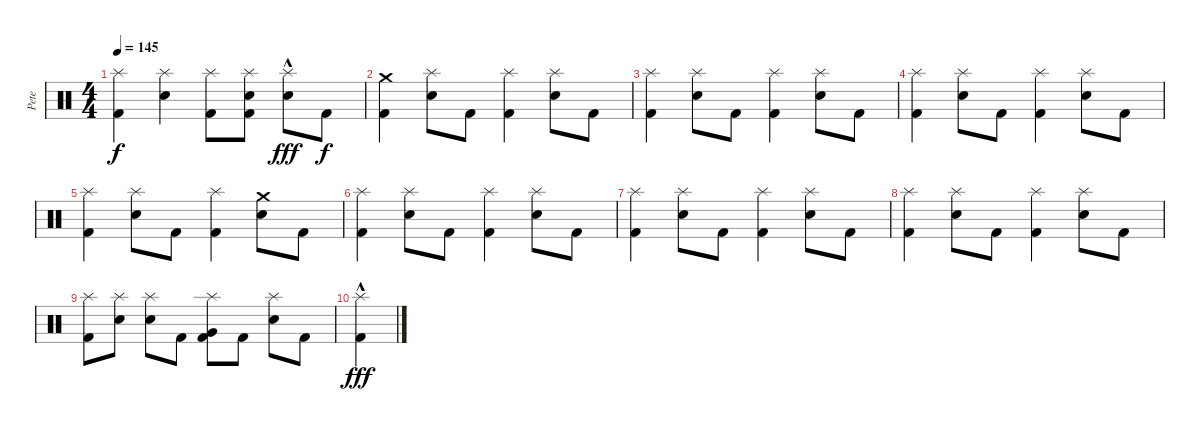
\track ("Pete" "Pete") {instrument percussion}
\staff {score}
\articulation defaults
\ts (4 4)
\tempo 145
\clef neutral
\ks c
("Splash (hit)" "Kick (hit) 2").4{dy f} ("Splash (hit)" "Electric Snare (hit)").4 ("Splash (hit)" "Kick (hit) 2").8 ("Splash (hit)" "Electric Snare (hit)" "Kick (hit) 2").8 ("Splash (hit)" "Electric Snare (hit)"{hac}).8{dy fff} "Kick (hit) 2".8{dy f} |
("Crash medium (hit)" "Kick (hit) 2").4 ("Splash (hit)" "Electric Snare (hit)").8 "Kick (hit) 2".8 ("Splash (hit)" "Kick (hit) 2").4 ("Splash (hit)" "Electric Snare (hit)").8 "Kick (hit) 2".8 |
("Splash (hit)" "Kick (hit) 2").4 ("Splash (hit)" "Electric Snare (hit)").8 "Kick (hit) 2".8 ("Splash (hit)" "Kick (hit) 2").4 ("Splash (hit)" "Electric Snare (hit)").8 "Kick (hit) 2".8 |
("Splash (hit)" "Kick (hit) 2").4 ("Splash (hit)" "Electric Snare (hit)").8 "Kick (hit) 2".8 ("Splash (hit)" "Kick (hit) 2").4 ("Splash (hit)" "Electric Snare (hit)").8 "Kick (hit) 2".8 |
("Splash (hit)" "Kick (hit) 2").4 ("Splash (hit)" "Electric Snare (hit)").8 "Kick (hit) 2".8 ("Splash (hit)" "Kick (hit) 2").4 ("Crash medium (hit)" "Electric Snare (hit)").8 "Kick (hit) 2".8 |
("Splash (hit)" "Kick (hit) 2").4 ("Splash (hit)" "Electric Snare (hit)").8 "Kick (hit) 2".8 ("Splash (hit)" "Kick (hit) 2").4 ("Splash (hit)" "Electric Snare (hit)").8 "Kick (hit) 2".8 |
("Splash (hit)" "Kick (hit) 2").4 ("Splash (hit)" "Electric Snare (hit)").8 "Kick (hit) 2".8 ("Splash (hit)" "Kick (hit) 2").4 ("Splash (hit)" "Electric Snare (hit)").8 "Kick (hit) 2".8 |
("Splash (hit)" "Kick (hit) 2").4 ("Splash (hit)" "Electric Snare (hit)").8 "Kick (hit) 2".8 ("Splash (hit)" "Kick (hit) 2").4 ("Splash (hit)" "Electric Snare (hit)").8 "Kick (hit) 2".8 |
("Splash (hit)" "Kick (hit) 2").8 ("Splash (hit)" "Electric Snare (hit)").8 ("Splash (hit)" "Electric Snare (hit)").8 "Kick (hit) 2".8 ("Splash (hit)" "Very Low Tom (hit)" "Kick (hit) 2").8 "Kick (hit) 2".8 ("Splash (hit)" "Electric Snare (hit)").8 "Kick (hit) 2".8 |
("Splash (hit)" "Kick (hit) 2"{hac}).4{dy fff}
